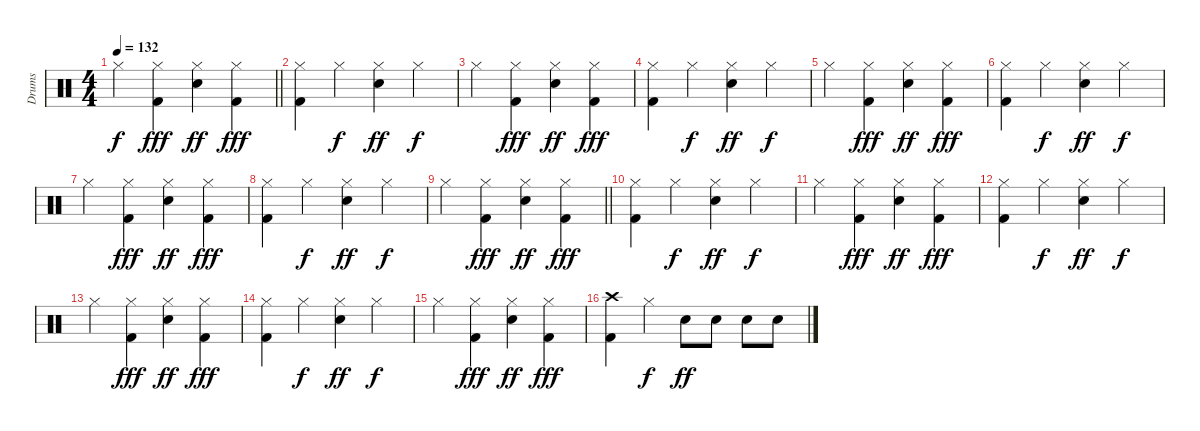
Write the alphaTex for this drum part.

\track ("Drums" "Drums") {instrument percussion}
\staff {score}
\articulation defaults
\ts (4 4)
\tempo 132
\clef neutral
\barLineRight lightlight
\ks c "Hi-Hat (closed)".4{dy f}
("Hi-Hat (closed)" "Kick (hit) 2").4{dy fff} ("Hi-Hat (closed)" "Electric Snare (hit)").4{dy ff} ("Hi-Hat (closed)" "Kick (hit) 2").4{dy fff} |
("Hi-Hat (closed)" "Kick (hit) 2").4 "Hi-Hat (closed)".4{dy f} ("Hi-Hat (closed)" "Electric Snare (hit)").4{dy ff} "Hi-Hat (closed)".4{dy f} |
"Hi-Hat (closed)".4 ("Hi-Hat (closed)" "Kick (hit) 2").4{dy fff} ("Hi-Hat (closed)" "Electric Snare (hit)").4{dy ff} ("Hi-Hat (closed)" "Kick (hit) 2").4{dy fff} |
("Hi-Hat (closed)" "Kick (hit) 2").4 "Hi-Hat (closed)".4{dy f} ("Hi-Hat (closed)" "Electric Snare (hit)").4{dy ff} "Hi-Hat (closed)".4{dy f} |
"Hi-Hat (closed)".4 ("Hi-Hat (closed)" "Kick (hit) 2").4{dy fff} ("Hi-Hat (closed)" "Electric Snare (hit)").4{dy ff} ("Hi-Hat (closed)" "Kick (hit) 2").4{dy fff} |
("Hi-Hat (closed)" "Kick (hit) 2").4 "Hi-Hat (closed)".4{dy f} ("Hi-Hat (closed)" "Electric Snare (hit)").4{dy ff} "Hi-Hat (closed)".4{dy f} |
"Hi-Hat (closed)".4 ("Hi-Hat (closed)" "Kick (hit) 2").4{dy fff} ("Hi-Hat (closed)" "Electric Snare (hit)").4{dy ff} ("Hi-Hat (closed)" "Kick (hit) 2").4{dy fff} |
("Hi-Hat (closed)" "Kick (hit) 2").4 "Hi-Hat (closed)".4{dy f} ("Hi-Hat (closed)" "Electric Snare (hit)").4{dy ff} "Hi-Hat (closed)".4{dy f} |
\barLineRight lightlight "Hi-Hat (closed)".4
("Hi-Hat (closed)" "Kick (hit) 2").4{dy fff} ("Hi-Hat (closed)" "Electric Snare (hit)").4{dy ff} ("Hi-Hat (closed)" "Kick (hit) 2").4{dy fff} |
("Hi-Hat (closed)" "Kick (hit) 2").4 "Hi-Hat (closed)".4{dy f} ("Hi-Hat (closed)" "Electric Snare (hit)").4{dy ff} "Hi-Hat (closed)".4{dy f} |
"Hi-Hat (closed)".4 ("Hi-Hat (closed)" "Kick (hit) 2").4{dy fff} ("Hi-Hat (closed)" "Electric Snare (hit)").4{dy ff} ("Hi-Hat (closed)" "Kick (hit) 2").4{dy fff} |
("Hi-Hat (closed)" "Kick (hit) 2").4 "Hi-Hat (closed)".4{dy f} ("Hi-Hat (closed)" "Electric Snare (hit)").4{dy ff} "Hi-Hat (closed)".4{dy f} |
"Hi-Hat (closed)".4 ("Hi-Hat (closed)" "Kick (hit) 2").4{dy fff} ("Hi-Hat (closed)" "Electric Snare (hit)").4{dy ff} ("Hi-Hat (closed)" "Kick (hit) 2").4{dy fff} |
("Hi-Hat (closed)" "Kick (hit) 2").4 "Hi-Hat (closed)".4{dy f} ("Hi-Hat (closed)" "Electric Snare (hit)").4{dy ff} "Hi-Hat (closed)".4{dy f} |
"Hi-Hat (closed)".4 ("Hi-Hat (closed)" "Kick (hit) 2").4{dy fff} ("Hi-Hat (closed)" "Electric Snare (hit)").4{dy ff} ("Hi-Hat (closed)" "Kick (hit) 2").4{dy fff} |
("Crash high (hit)" "Kick (hit) 2").4 "Hi-Hat (closed)".4{dy f} "Electric Snare (hit)".8{dy ff} "Electric Snare (hit)".8 "Electric Snare (hit)".8 "Electric Snare (hit)".8
